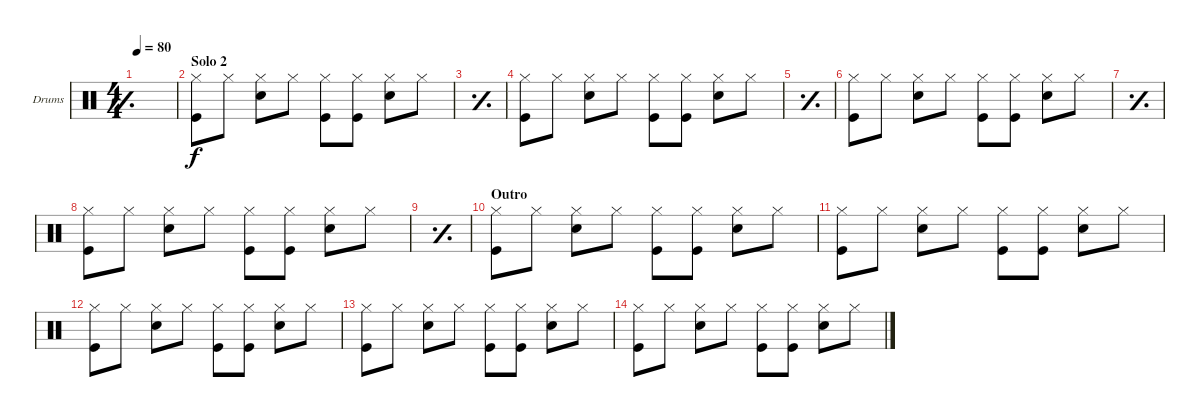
\defaultSystemsLayout 4
\bracketExtendMode groupsimilarinstruments
\firstSystemTrackNameOrientation horizontal
\otherSystemsTrackNameOrientation horizontal
\chordDiagramsInScore
\track ("Drumkit" "Drums") {instrument percussion}
\staff {score}
\articulation defaults
\ts (4 4)
\tempo 80
\clef neutral
\simile simple
\ks c
|
\section ("" "Solo 2")
("Hi-Hat (closed)" "Kick (hit)").8 "Hi-Hat (closed)".8 ("Hi-Hat (closed)" "Snare (hit) 2").8 "Hi-Hat (closed)".8 ("Hi-Hat (closed)" "Kick (hit)").8 ("Hi-Hat (closed)" "Kick (hit)").8 ("Hi-Hat (closed)" "Snare (hit) 2").8 "Hi-Hat (closed)".8 |
\simile simple
|
\simile none
("Hi-Hat (closed)" "Kick (hit)").8 "Hi-Hat (closed)".8 ("Hi-Hat (closed)" "Snare (hit) 2").8 "Hi-Hat (closed)".8 ("Hi-Hat (closed)" "Kick (hit)").8 ("Hi-Hat (closed)" "Kick (hit)").8 ("Hi-Hat (closed)" "Snare (hit) 2").8 "Hi-Hat (closed)".8 |
\simile simple
|
\simile none
("Hi-Hat (closed)" "Kick (hit)").8 "Hi-Hat (closed)".8 ("Hi-Hat (closed)" "Snare (hit) 2").8 "Hi-Hat (closed)".8 ("Hi-Hat (closed)" "Kick (hit)").8 ("Hi-Hat (closed)" "Kick (hit)").8 ("Hi-Hat (closed)" "Snare (hit) 2").8 "Hi-Hat (closed)".8 |
\simile simple
|
\simile none
("Hi-Hat (closed)" "Kick (hit)").8 "Hi-Hat (closed)".8 ("Hi-Hat (closed)" "Snare (hit) 2").8 "Hi-Hat (closed)".8 ("Hi-Hat (closed)" "Kick (hit)").8 ("Hi-Hat (closed)" "Kick (hit)").8 ("Hi-Hat (closed)" "Snare (hit) 2").8 "Hi-Hat (closed)".8 |
\simile simple
|
\section ("" "Outro")
\simile none
("Hi-Hat (closed)" "Kick (hit)").8 "Hi-Hat (closed)".8 ("Hi-Hat (closed)" "Snare (hit) 2").8 "Hi-Hat (closed)".8 ("Hi-Hat (closed)" "Kick (hit)").8 ("Hi-Hat (closed)" "Kick (hit)").8 ("Hi-Hat (closed)" "Snare (hit) 2").8 "Hi-Hat (closed)".8 |
("Hi-Hat (closed)" "Kick (hit)").8 "Hi-Hat (closed)".8 ("Hi-Hat (closed)" "Snare (hit) 2").8 "Hi-Hat (closed)".8 ("Hi-Hat (closed)" "Kick (hit)").8 ("Hi-Hat (closed)" "Kick (hit)").8 ("Hi-Hat (closed)" "Snare (hit) 2").8 "Hi-Hat (closed)".8 |
("Hi-Hat (closed)" "Kick (hit)").8 "Hi-Hat (closed)".8 ("Hi-Hat (closed)" "Snare (hit) 2").8 "Hi-Hat (closed)".8 ("Hi-Hat (closed)" "Kick (hit)").8 ("Hi-Hat (closed)" "Kick (hit)").8 ("Hi-Hat (closed)" "Snare (hit) 2").8 "Hi-Hat (closed)".8 |
("Hi-Hat (closed)" "Kick (hit)").8 "Hi-Hat (closed)".8 ("Hi-Hat (closed)" "Snare (hit) 2").8 "Hi-Hat (closed)".8 ("Hi-Hat (closed)" "Kick (hit)").8 ("Hi-Hat (closed)" "Kick (hit)").8 ("Hi-Hat (closed)" "Snare (hit) 2").8 "Hi-Hat (closed)".8 |
("Hi-Hat (closed)" "Kick (hit)").8 "Hi-Hat (closed)".8 ("Hi-Hat (closed)" "Snare (hit) 2").8 "Hi-Hat (closed)".8 ("Hi-Hat (closed)" "Kick (hit)").8 ("Hi-Hat (closed)" "Kick (hit)").8 ("Hi-Hat (closed)" "Snare (hit) 2").8 "Hi-Hat (closed)".8
